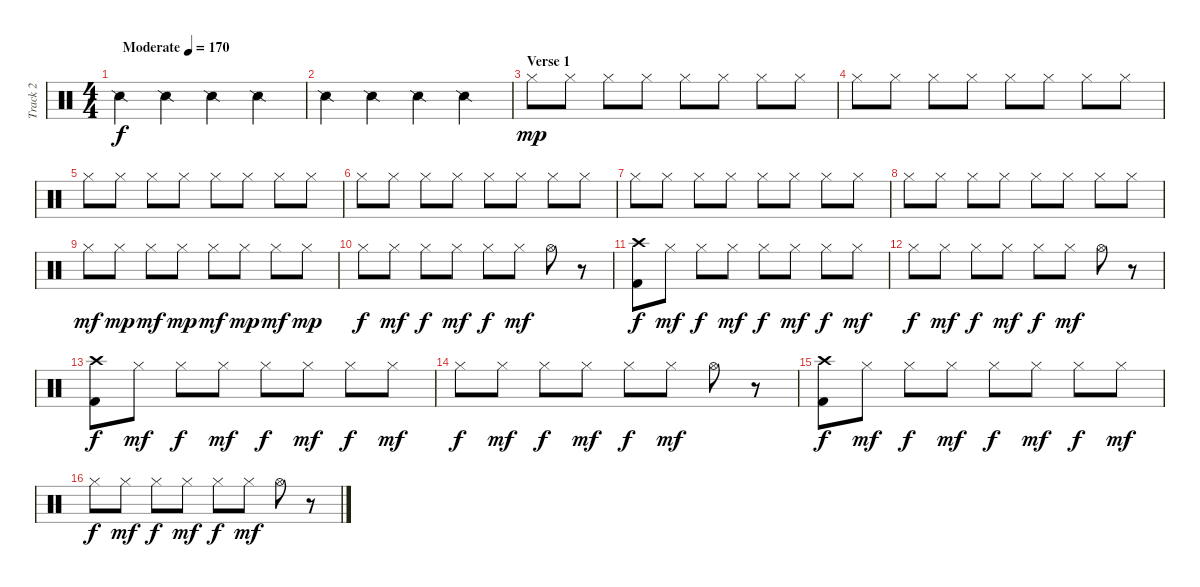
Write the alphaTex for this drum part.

\track ("Track 2" "Track 2") {instrument percussion}
\staff {score}
\articulation defaults
\ts (4 4)
\tempo (170 "Moderate")
\clef neutral
\ks c "Snare (side stick) 2".4{dy f} "Snare (side stick) 2".4 "Snare (side stick) 2".4 "Snare (side stick) 2".4
|
"Snare (side stick) 2".4 "Snare (side stick) 2".4 "Snare (side stick) 2".4 "Snare (side stick) 2".4 |
\section ("" "Verse 1")
"Hi-Hat (closed)".8{dy mp} "Hi-Hat (closed)".8 "Hi-Hat (closed)".8 "Hi-Hat (closed)".8 "Hi-Hat (closed)".8 "Hi-Hat (closed)".8 "Hi-Hat (closed)".8 "Hi-Hat (closed)".8 |
"Hi-Hat (closed)".8 "Hi-Hat (closed)".8 "Hi-Hat (closed)".8 "Hi-Hat (closed)".8 "Hi-Hat (closed)".8 "Hi-Hat (closed)".8 "Hi-Hat (closed)".8 "Hi-Hat (closed)".8 |
"Hi-Hat (closed)".8 "Hi-Hat (closed)".8 "Hi-Hat (closed)".8 "Hi-Hat (closed)".8 "Hi-Hat (closed)".8 "Hi-Hat (closed)".8 "Hi-Hat (closed)".8 "Hi-Hat (closed)".8 |
"Hi-Hat (closed)".8 "Hi-Hat (closed)".8 "Hi-Hat (closed)".8 "Hi-Hat (closed)".8 "Hi-Hat (closed)".8 "Hi-Hat (closed)".8 "Hi-Hat (closed)".8 "Hi-Hat (closed)".8 |
"Hi-Hat (closed)".8 "Hi-Hat (closed)".8 "Hi-Hat (closed)".8 "Hi-Hat (closed)".8 "Hi-Hat (closed)".8 "Hi-Hat (closed)".8 "Hi-Hat (closed)".8 "Hi-Hat (closed)".8 |
"Hi-Hat (closed)".8 "Hi-Hat (closed)".8 "Hi-Hat (closed)".8 "Hi-Hat (closed)".8 "Hi-Hat (closed)".8 "Hi-Hat (closed)".8 "Hi-Hat (closed)".8 "Hi-Hat (closed)".8 |
"Hi-Hat (closed)".8{dy mf} "Hi-Hat (closed)".8{dy mp} "Hi-Hat (closed)".8{dy mf} "Hi-Hat (closed)".8{dy mp} "Hi-Hat (closed)".8{dy mf} "Hi-Hat (closed)".8{dy mp} "Hi-Hat (closed)".8{dy mf} "Hi-Hat (closed)".8{dy mp} |
"Hi-Hat (closed)".8{dy f} "Hi-Hat (closed)".8{dy mf} "Hi-Hat (closed)".8{dy f} "Hi-Hat (closed)".8{dy mf} "Hi-Hat (closed)".8{dy f} "Hi-Hat (closed)".8{dy mf} "Hi-Hat (open)".8 r.8 |
("Crash high (hit)" "Kick (hit) 2").8{dy f} "Hi-Hat (closed)".8{dy mf} "Hi-Hat (closed)".8{dy f} "Hi-Hat (closed)".8{dy mf} "Hi-Hat (closed)".8{dy f} "Hi-Hat (closed)".8{dy mf} "Hi-Hat (closed)".8{dy f} "Hi-Hat (closed)".8{dy mf} |
"Hi-Hat (closed)".8{dy f} "Hi-Hat (closed)".8{dy mf} "Hi-Hat (closed)".8{dy f} "Hi-Hat (closed)".8{dy mf} "Hi-Hat (closed)".8{dy f} "Hi-Hat (closed)".8{dy mf} "Hi-Hat (open)".8 r.8 |
("Crash high (hit)" "Kick (hit) 2").8{dy f} "Hi-Hat (closed)".8{dy mf} "Hi-Hat (closed)".8{dy f} "Hi-Hat (closed)".8{dy mf} "Hi-Hat (closed)".8{dy f} "Hi-Hat (closed)".8{dy mf} "Hi-Hat (closed)".8{dy f} "Hi-Hat (closed)".8{dy mf} |
"Hi-Hat (closed)".8{dy f} "Hi-Hat (closed)".8{dy mf} "Hi-Hat (closed)".8{dy f} "Hi-Hat (closed)".8{dy mf} "Hi-Hat (closed)".8{dy f} "Hi-Hat (closed)".8{dy mf} "Hi-Hat (open)".8 r.8 |
("Crash high (hit)" "Kick (hit) 2").8{dy f} "Hi-Hat (closed)".8{dy mf} "Hi-Hat (closed)".8{dy f} "Hi-Hat (closed)".8{dy mf} "Hi-Hat (closed)".8{dy f} "Hi-Hat (closed)".8{dy mf} "Hi-Hat (closed)".8{dy f} "Hi-Hat (closed)".8{dy mf} |
"Hi-Hat (closed)".8{dy f} "Hi-Hat (closed)".8{dy mf} "Hi-Hat (closed)".8{dy f} "Hi-Hat (closed)".8{dy mf} "Hi-Hat (closed)".8{dy f} "Hi-Hat (closed)".8{dy mf} "Hi-Hat (open)".8 r.8
